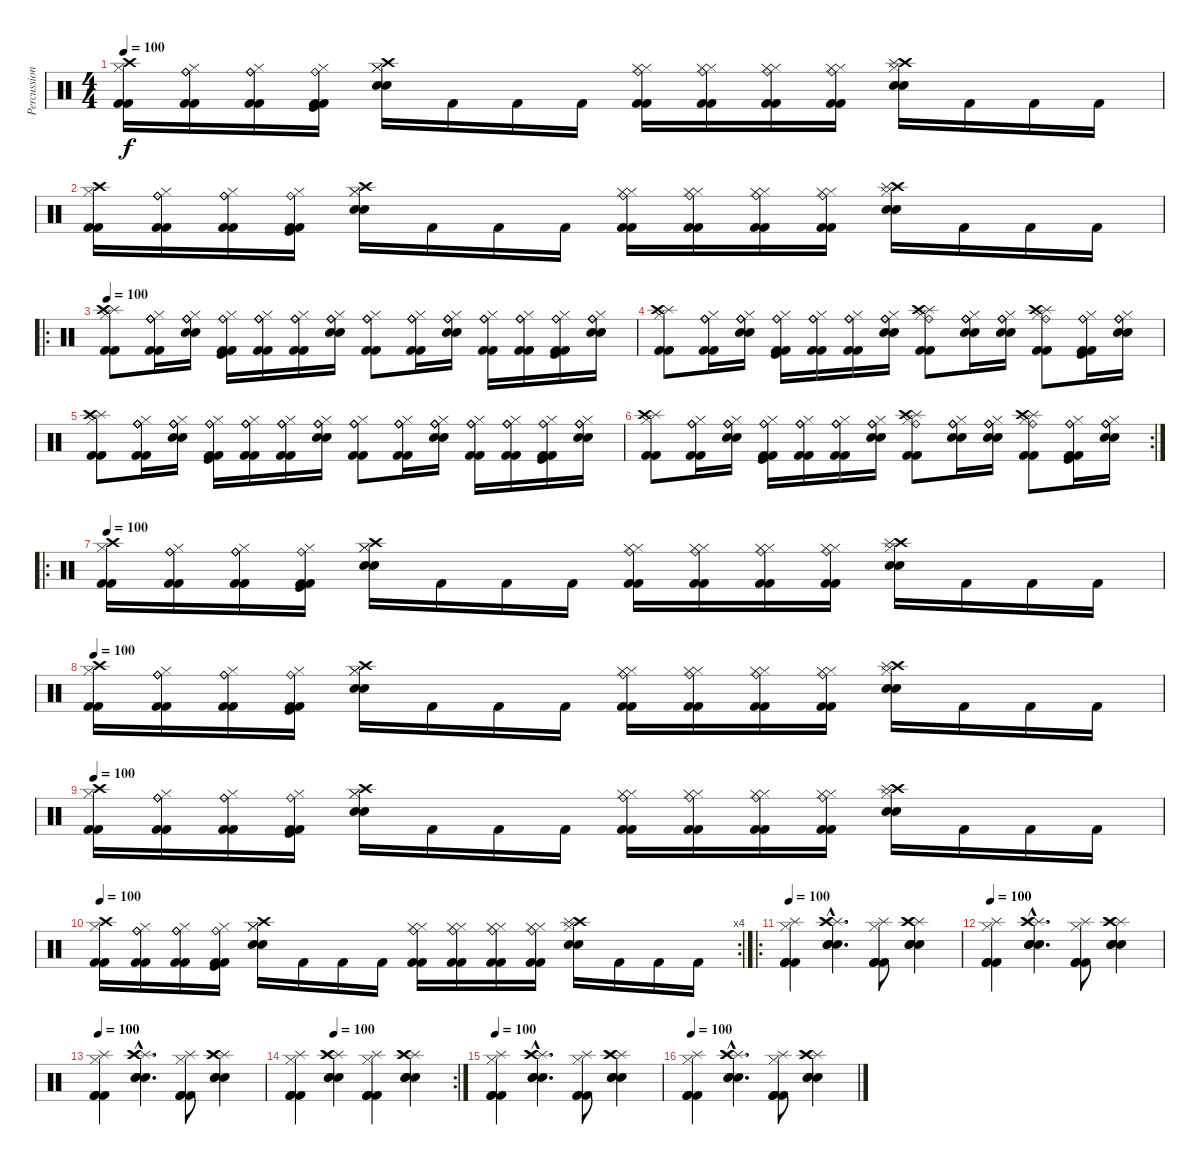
\track ("Percussion" "Percussion") {instrument percussion}
\staff {score}
\articulation defaults
\ts (4 4)
\tempo 100
\clef neutral
\ks c
("Crash high (hit)" "Hi-Hat (closed)" "Kick (hit) 2" "Kick (hit) 2").16{dy f} ("Ride (bell)" "Ride (bell)" "Hi-Hat (closed)" "Kick (hit) 2" "Kick (hit) 2").16 ("Ride (bell)" "Ride (bell)" "Hi-Hat (closed)" "Kick (hit) 2" "Kick (hit) 2").16 ("Ride (bell)" "Kick (hit)" "Hi-Hat (closed)" "Kick (hit) 2" "Kick (hit) 2").16 ("Crash high (hit)" "Hi-Hat (closed)" "Hi-Hat (closed)" "Snare (hit) 2" "Snare (hit) 2").16 "Kick (hit) 2".16 "Kick (hit) 2".16 "Kick (hit) 2".16 ("Ride (bell)" "Hi-Hat (closed)" "Hi-Hat (closed)" "Kick (hit) 2" "Kick (hit) 2").16 ("Ride (bell)" "Hi-Hat (closed)" "Hi-Hat (closed)" "Kick (hit) 2" "Kick (hit) 2").16 ("Ride (bell)" "Hi-Hat (closed)" "Hi-Hat (closed)" "Kick (hit) 2" "Kick (hit) 2").16 ("Ride (bell)" "Hi-Hat (closed)" "Hi-Hat (closed)" "Kick (hit) 2" "Kick (hit) 2").16 ("Crash high (hit)" "Splash (hit)" "Hi-Hat (closed)" "Snare (hit) 2" "Snare (hit) 2").16 "Kick (hit) 2".16 "Kick (hit) 2".16 "Kick (hit) 2".16 |
("Crash high (hit)" "Hi-Hat (closed)" "Kick (hit) 2" "Kick (hit) 2").16 ("Ride (bell)" "Ride (bell)" "Hi-Hat (closed)" "Kick (hit) 2" "Kick (hit) 2").16 ("Ride (bell)" "Ride (bell)" "Hi-Hat (closed)" "Kick (hit) 2" "Kick (hit) 2").16 ("Ride (bell)" "Kick (hit)" "Hi-Hat (closed)" "Kick (hit) 2" "Kick (hit) 2").16 ("Crash high (hit)" "Hi-Hat (closed)" "Hi-Hat (closed)" "Snare (hit) 2" "Snare (hit) 2").16 "Kick (hit) 2".16 "Kick (hit) 2".16 "Kick (hit) 2".16 ("Ride (bell)" "Hi-Hat (closed)" "Hi-Hat (closed)" "Kick (hit) 2" "Kick (hit) 2").16 ("Ride (bell)" "Hi-Hat (closed)" "Hi-Hat (closed)" "Kick (hit) 2" "Kick (hit) 2").16 ("Ride (bell)" "Hi-Hat (closed)" "Hi-Hat (closed)" "Kick (hit) 2" "Kick (hit) 2").16 ("Ride (bell)" "Hi-Hat (closed)" "Hi-Hat (closed)" "Kick (hit) 2" "Kick (hit) 2").16 ("Crash high (hit)" "Splash (hit)" "Hi-Hat (closed)" "Snare (hit) 2" "Snare (hit) 2").16 "Kick (hit) 2".16 "Kick (hit) 2".16 "Kick (hit) 2".16 |
\ro
\tempo 100
("Splash (hit)" "Crash high (hit)" "Hi-Hat (closed)" "Kick (hit) 2" "Kick (hit) 2").8 ("Ride (bell)" "Ride (bell)" "Ride (bell)" "Hi-Hat (closed)" "Kick (hit) 2" "Kick (hit) 2").16 ("Ride (bell)" "Ride (bell)" "Ride (bell)" "Hi-Hat (closed)" "Snare (hit) 2" "Snare (hit) 2").16 ("Ride (bell)" "Ride (bell)" "Kick (hit)" "Hi-Hat (closed)" "Kick (hit) 2" "Kick (hit) 2").16 ("Ride (bell)" "Ride (bell)" "Ride (bell)" "Hi-Hat (closed)" "Kick (hit) 2" "Kick (hit) 2").16 ("Ride (bell)" "Ride (bell)" "Ride (bell)" "Hi-Hat (closed)" "Kick (hit) 2" "Kick (hit) 2").16 ("Ride (bell)" "Ride (bell)" "Ride (bell)" "Hi-Hat (closed)" "Snare (hit) 2" "Snare (hit) 2").16 ("Ride (bell)" "Ride (bell)" "Ride (bell)" "Hi-Hat (closed)" "Kick (hit) 2" "Kick (hit) 2").8 ("Ride (bell)" "Ride (bell)" "Ride (bell)" "Hi-Hat (closed)" "Kick (hit) 2" "Kick (hit) 2").16 ("Ride (bell)" "Ride (bell)" "Ride (bell)" "Hi-Hat (closed)" "Snare (hit) 2" "Snare (hit) 2").16 ("Ride (bell)" "Ride (bell)" "Ride (bell)" "Hi-Hat (closed)" "Kick (hit) 2" "Kick (hit) 2").16 ("Ride (bell)" "Ride (bell)" "Ride (bell)" "Hi-Hat (closed)" "Kick (hit) 2" "Kick (hit) 2").16 ("Kick (hit)" "Ride (bell)" "Ride (bell)" "Hi-Hat (closed)" "Kick (hit) 2" "Kick (hit) 2").16 ("Ride (bell)" "Ride (bell)" "Ride (bell)" "Hi-Hat (closed)" "Snare (hit) 2" "Snare (hit) 2").16 |
("Splash (hit)" "Crash high (hit)" "Hi-Hat (closed)" "Kick (hit) 2" "Kick (hit) 2").8 ("Ride (bell)" "Ride (bell)" "Ride (bell)" "Hi-Hat (closed)" "Kick (hit) 2" "Kick (hit) 2").16 ("Ride (bell)" "Ride (bell)" "Ride (bell)" "Hi-Hat (closed)" "Snare (hit) 2" "Snare (hit) 2").16 ("Ride (bell)" "Ride (bell)" "Kick (hit)" "Hi-Hat (closed)" "Kick (hit) 2" "Kick (hit) 2").16 ("Ride (bell)" "Ride (bell)" "Ride (bell)" "Hi-Hat (closed)" "Kick (hit) 2" "Kick (hit) 2").16 ("Ride (bell)" "Ride (bell)" "Ride (bell)" "Hi-Hat (closed)" "Kick (hit) 2" "Kick (hit) 2").16 ("Ride (bell)" "Ride (bell)" "Ride (bell)" "Hi-Hat (closed)" "Snare (hit) 2" "Snare (hit) 2").16 ("Splash (hit)" "Ride (bell)" "Crash high (hit)" "Hi-Hat (closed)" "Kick (hit) 2" "Kick (hit) 2").8 ("Ride (bell)" "Ride (bell)" "Ride (bell)" "Hi-Hat (closed)" "Snare (hit) 2" "Snare (hit) 2").16 ("Ride (bell)" "Ride (bell)" "Ride (bell)" "Hi-Hat (closed)" "Snare (hit) 2" "Snare (hit) 2").16 ("Splash (hit)" "Ride (bell)" "Crash high (hit)" "Hi-Hat (closed)" "Kick (hit) 2" "Kick (hit) 2").8 ("Kick (hit)" "Ride (bell)" "Ride (bell)" "Hi-Hat (closed)" "Kick (hit) 2" "Kick (hit) 2").16 ("Ride (bell)" "Ride (bell)" "Ride (bell)" "Hi-Hat (closed)" "Snare (hit) 2" "Snare (hit) 2").16 |
("Splash (hit)" "Crash high (hit)" "Hi-Hat (closed)" "Kick (hit) 2" "Kick (hit) 2").8 ("Ride (bell)" "Ride (bell)" "Ride (bell)" "Hi-Hat (closed)" "Kick (hit) 2" "Kick (hit) 2").16 ("Ride (bell)" "Ride (bell)" "Ride (bell)" "Hi-Hat (closed)" "Snare (hit) 2" "Snare (hit) 2").16 ("Ride (bell)" "Ride (bell)" "Kick (hit)" "Hi-Hat (closed)" "Kick (hit) 2" "Kick (hit) 2").16 ("Ride (bell)" "Ride (bell)" "Ride (bell)" "Hi-Hat (closed)" "Kick (hit) 2" "Kick (hit) 2").16 ("Ride (bell)" "Ride (bell)" "Ride (bell)" "Hi-Hat (closed)" "Kick (hit) 2" "Kick (hit) 2").16 ("Ride (bell)" "Ride (bell)" "Ride (bell)" "Hi-Hat (closed)" "Snare (hit) 2" "Snare (hit) 2").16 ("Ride (bell)" "Ride (bell)" "Ride (bell)" "Hi-Hat (closed)" "Kick (hit) 2" "Kick (hit) 2").8 ("Ride (bell)" "Ride (bell)" "Ride (bell)" "Hi-Hat (closed)" "Kick (hit) 2" "Kick (hit) 2").16 ("Ride (bell)" "Ride (bell)" "Ride (bell)" "Hi-Hat (closed)" "Snare (hit) 2" "Snare (hit) 2").16 ("Ride (bell)" "Ride (bell)" "Ride (bell)" "Hi-Hat (closed)" "Kick (hit) 2" "Kick (hit) 2").16 ("Ride (bell)" "Ride (bell)" "Ride (bell)" "Hi-Hat (closed)" "Kick (hit) 2" "Kick (hit) 2").16 ("Kick (hit)" "Ride (bell)" "Ride (bell)" "Hi-Hat (closed)" "Kick (hit) 2" "Kick (hit) 2").16 ("Ride (bell)" "Ride (bell)" "Ride (bell)" "Hi-Hat (closed)" "Snare (hit) 2" "Snare (hit) 2").16 |
\rc 2
("Splash (hit)" "Crash high (hit)" "Hi-Hat (closed)" "Kick (hit) 2" "Kick (hit) 2").8 ("Ride (bell)" "Ride (bell)" "Ride (bell)" "Hi-Hat (closed)" "Kick (hit) 2" "Kick (hit) 2").16 ("Ride (bell)" "Ride (bell)" "Ride (bell)" "Hi-Hat (closed)" "Snare (hit) 2" "Snare (hit) 2").16 ("Ride (bell)" "Ride (bell)" "Kick (hit)" "Hi-Hat (closed)" "Kick (hit) 2" "Kick (hit) 2").16 ("Ride (bell)" "Ride (bell)" "Ride (bell)" "Hi-Hat (closed)" "Kick (hit) 2" "Kick (hit) 2").16 ("Ride (bell)" "Ride (bell)" "Ride (bell)" "Hi-Hat (closed)" "Kick (hit) 2" "Kick (hit) 2").16 ("Ride (bell)" "Ride (bell)" "Ride (bell)" "Hi-Hat (closed)" "Snare (hit) 2" "Snare (hit) 2").16 ("Splash (hit)" "Ride (bell)" "Crash high (hit)" "Hi-Hat (closed)" "Kick (hit) 2" "Kick (hit) 2").8 ("Ride (bell)" "Ride (bell)" "Ride (bell)" "Hi-Hat (closed)" "Snare (hit) 2" "Snare (hit) 2").16 ("Ride (bell)" "Ride (bell)" "Ride (bell)" "Hi-Hat (closed)" "Snare (hit) 2" "Snare (hit) 2").16 ("Splash (hit)" "Ride (bell)" "Crash high (hit)" "Hi-Hat (closed)" "Kick (hit) 2" "Kick (hit) 2").8 ("Kick (hit)" "Ride (bell)" "Ride (bell)" "Hi-Hat (closed)" "Kick (hit) 2" "Kick (hit) 2").16 ("Ride (bell)" "Ride (bell)" "Ride (bell)" "Hi-Hat (closed)" "Snare (hit) 2" "Snare (hit) 2").16 |
\ro
\tempo 100
("Crash high (hit)" "Hi-Hat (closed)" "Kick (hit) 2" "Kick (hit) 2").16 ("Ride (bell)" "Ride (bell)" "Hi-Hat (closed)" "Kick (hit) 2" "Kick (hit) 2").16 ("Ride (bell)" "Ride (bell)" "Hi-Hat (closed)" "Kick (hit) 2" "Kick (hit) 2").16 ("Ride (bell)" "Kick (hit)" "Hi-Hat (closed)" "Kick (hit) 2" "Kick (hit) 2").16 ("Crash high (hit)" "Hi-Hat (closed)" "Hi-Hat (closed)" "Snare (hit) 2" "Snare (hit) 2").16 "Kick (hit) 2".16 "Kick (hit) 2".16 "Kick (hit) 2".16 ("Ride (bell)" "Hi-Hat (closed)" "Hi-Hat (closed)" "Kick (hit) 2" "Kick (hit) 2").16 ("Ride (bell)" "Hi-Hat (closed)" "Hi-Hat (closed)" "Kick (hit) 2" "Kick (hit) 2").16 ("Ride (bell)" "Hi-Hat (closed)" "Hi-Hat (closed)" "Kick (hit) 2" "Kick (hit) 2").16 ("Ride (bell)" "Hi-Hat (closed)" "Hi-Hat (closed)" "Kick (hit) 2" "Kick (hit) 2").16 ("Crash high (hit)" "Splash (hit)" "Hi-Hat (closed)" "Snare (hit) 2" "Snare (hit) 2").16 "Kick (hit) 2".16 "Kick (hit) 2".16 "Kick (hit) 2".16 |
\tempo 100
("Crash high (hit)" "Hi-Hat (closed)" "Kick (hit) 2" "Kick (hit) 2").16 ("Ride (bell)" "Ride (bell)" "Hi-Hat (closed)" "Kick (hit) 2" "Kick (hit) 2").16 ("Ride (bell)" "Ride (bell)" "Hi-Hat (closed)" "Kick (hit) 2" "Kick (hit) 2").16 ("Ride (bell)" "Kick (hit)" "Hi-Hat (closed)" "Kick (hit) 2" "Kick (hit) 2").16 ("Crash high (hit)" "Hi-Hat (closed)" "Hi-Hat (closed)" "Snare (hit) 2" "Snare (hit) 2").16 "Kick (hit) 2".16 "Kick (hit) 2".16 "Kick (hit) 2".16 ("Ride (bell)" "Hi-Hat (closed)" "Hi-Hat (closed)" "Kick (hit) 2" "Kick (hit) 2").16 ("Ride (bell)" "Hi-Hat (closed)" "Hi-Hat (closed)" "Kick (hit) 2" "Kick (hit) 2").16 ("Ride (bell)" "Hi-Hat (closed)" "Hi-Hat (closed)" "Kick (hit) 2" "Kick (hit) 2").16 ("Ride (bell)" "Hi-Hat (closed)" "Hi-Hat (closed)" "Kick (hit) 2" "Kick (hit) 2").16 ("Crash high (hit)" "Splash (hit)" "Hi-Hat (closed)" "Snare (hit) 2" "Snare (hit) 2").16 "Kick (hit) 2".16 "Kick (hit) 2".16 "Kick (hit) 2".16 |
\tempo 100
("Crash high (hit)" "Hi-Hat (closed)" "Kick (hit) 2" "Kick (hit) 2").16 ("Ride (bell)" "Ride (bell)" "Hi-Hat (closed)" "Kick (hit) 2" "Kick (hit) 2").16 ("Ride (bell)" "Ride (bell)" "Hi-Hat (closed)" "Kick (hit) 2" "Kick (hit) 2").16 ("Ride (bell)" "Kick (hit)" "Hi-Hat (closed)" "Kick (hit) 2" "Kick (hit) 2").16 ("Crash high (hit)" "Hi-Hat (closed)" "Hi-Hat (closed)" "Snare (hit) 2" "Snare (hit) 2").16 "Kick (hit) 2".16 "Kick (hit) 2".16 "Kick (hit) 2".16 ("Ride (bell)" "Hi-Hat (closed)" "Hi-Hat (closed)" "Kick (hit) 2" "Kick (hit) 2").16 ("Ride (bell)" "Hi-Hat (closed)" "Hi-Hat (closed)" "Kick (hit) 2" "Kick (hit) 2").16 ("Ride (bell)" "Hi-Hat (closed)" "Hi-Hat (closed)" "Kick (hit) 2" "Kick (hit) 2").16 ("Ride (bell)" "Hi-Hat (closed)" "Hi-Hat (closed)" "Kick (hit) 2" "Kick (hit) 2").16 ("Crash high (hit)" "Splash (hit)" "Hi-Hat (closed)" "Snare (hit) 2" "Snare (hit) 2").16 "Kick (hit) 2".16 "Kick (hit) 2".16 "Kick (hit) 2".16 |
\rc 4
\tempo 100
("Crash high (hit)" "Hi-Hat (closed)" "Kick (hit) 2" "Kick (hit) 2").16 ("Ride (bell)" "Ride (bell)" "Hi-Hat (closed)" "Kick (hit) 2" "Kick (hit) 2").16 ("Ride (bell)" "Ride (bell)" "Hi-Hat (closed)" "Kick (hit) 2" "Kick (hit) 2").16 ("Ride (bell)" "Kick (hit)" "Hi-Hat (closed)" "Kick (hit) 2" "Kick (hit) 2").16 ("Crash high (hit)" "Hi-Hat (closed)" "Hi-Hat (closed)" "Snare (hit) 2" "Snare (hit) 2").16 "Kick (hit) 2".16 "Kick (hit) 2".16 "Kick (hit) 2".16 ("Ride (bell)" "Hi-Hat (closed)" "Hi-Hat (closed)" "Kick (hit) 2" "Kick (hit) 2").16 ("Ride (bell)" "Hi-Hat (closed)" "Hi-Hat (closed)" "Kick (hit) 2" "Kick (hit) 2").16 ("Ride (bell)" "Hi-Hat (closed)" "Hi-Hat (closed)" "Kick (hit) 2" "Kick (hit) 2").16 ("Ride (bell)" "Hi-Hat (closed)" "Hi-Hat (closed)" "Kick (hit) 2" "Kick (hit) 2").16 ("Crash high (hit)" "Splash (hit)" "Hi-Hat (closed)" "Snare (hit) 2" "Snare (hit) 2").16 "Kick (hit) 2".16 "Kick (hit) 2".16 "Kick (hit) 2".16 |
\ro
\tempo 100
("Splash (hit)" "Hi-Hat (closed)" "Kick (hit) 2" "Kick (hit) 2" "Kick (hit) 2").4 ("Splash (hit)"{hac} "Crash high (hit)"{hac} "Crash high (hit)"{hac} "Snare (hit) 2"{hac} "Snare (hit) 2"{hac} "Snare (hit) 2"{hac}).4{d} ("Splash (hit)" "Hi-Hat (closed)" "Kick (hit) 2" "Kick (hit) 2" "Kick (hit) 2").8 ("Splash (hit)" "Crash high (hit)" "Crash high (hit)" "Snare (hit) 2" "Snare (hit) 2" "Snare (hit) 2").4 |
\tempo 100
("Splash (hit)" "Hi-Hat (closed)" "Kick (hit) 2" "Kick (hit) 2" "Kick (hit) 2").4 ("Splash (hit)"{hac} "Crash high (hit)"{hac} "Crash high (hit)"{hac} "Snare (hit) 2"{hac} "Snare (hit) 2"{hac} "Snare (hit) 2"{hac}).4{d} ("Splash (hit)" "Hi-Hat (closed)" "Kick (hit) 2" "Kick (hit) 2" "Kick (hit) 2").8 ("Splash (hit)" "Crash high (hit)" "Crash high (hit)" "Snare (hit) 2" "Snare (hit) 2" "Snare (hit) 2").4 |
\tempo 100
("Splash (hit)" "Hi-Hat (closed)" "Kick (hit) 2" "Kick (hit) 2" "Kick (hit) 2").4 ("Splash (hit)"{hac} "Crash high (hit)"{hac} "Crash high (hit)"{hac} "Snare (hit) 2"{hac} "Snare (hit) 2"{hac} "Snare (hit) 2"{hac}).4{d} ("Splash (hit)" "Hi-Hat (closed)" "Kick (hit) 2" "Kick (hit) 2" "Kick (hit) 2").8 ("Splash (hit)" "Crash high (hit)" "Crash high (hit)" "Snare (hit) 2" "Snare (hit) 2" "Snare (hit) 2").4 |
\rc 2
\tempo (100 0.25)
("Splash (hit)" "Hi-Hat (closed)" "Kick (hit) 2" "Kick (hit) 2" "Kick (hit) 2").4 ("Splash (hit)" "Crash high (hit)" "Crash high (hit)" "Snare (hit) 2" "Snare (hit) 2" "Snare (hit) 2").4 ("Splash (hit)" "Hi-Hat (closed)" "Kick (hit) 2" "Kick (hit) 2" "Kick (hit) 2").4 ("Splash (hit)" "Crash high (hit)" "Crash high (hit)" "Snare (hit) 2" "Snare (hit) 2" "Snare (hit) 2").4 |
\tempo 100
("Splash (hit)" "Hi-Hat (closed)" "Kick (hit) 2" "Kick (hit) 2" "Kick (hit) 2").4 ("Splash (hit)"{hac} "Crash high (hit)"{hac} "Crash high (hit)"{hac} "Snare (hit) 2"{hac} "Snare (hit) 2"{hac} "Snare (hit) 2"{hac}).4{d} ("Splash (hit)" "Hi-Hat (closed)" "Kick (hit) 2" "Kick (hit) 2" "Kick (hit) 2").8 ("Splash (hit)" "Crash high (hit)" "Crash high (hit)" "Snare (hit) 2" "Snare (hit) 2" "Snare (hit) 2").4 |
\tempo 100
("Splash (hit)" "Hi-Hat (closed)" "Kick (hit) 2" "Kick (hit) 2" "Kick (hit) 2").4 ("Splash (hit)"{hac} "Crash high (hit)"{hac} "Crash high (hit)"{hac} "Snare (hit) 2"{hac} "Snare (hit) 2"{hac} "Snare (hit) 2"{hac}).4{d} ("Splash (hit)" "Hi-Hat (closed)" "Kick (hit) 2" "Kick (hit) 2" "Kick (hit) 2").8 ("Splash (hit)" "Crash high (hit)" "Crash high (hit)" "Snare (hit) 2" "Snare (hit) 2" "Snare (hit) 2").4
